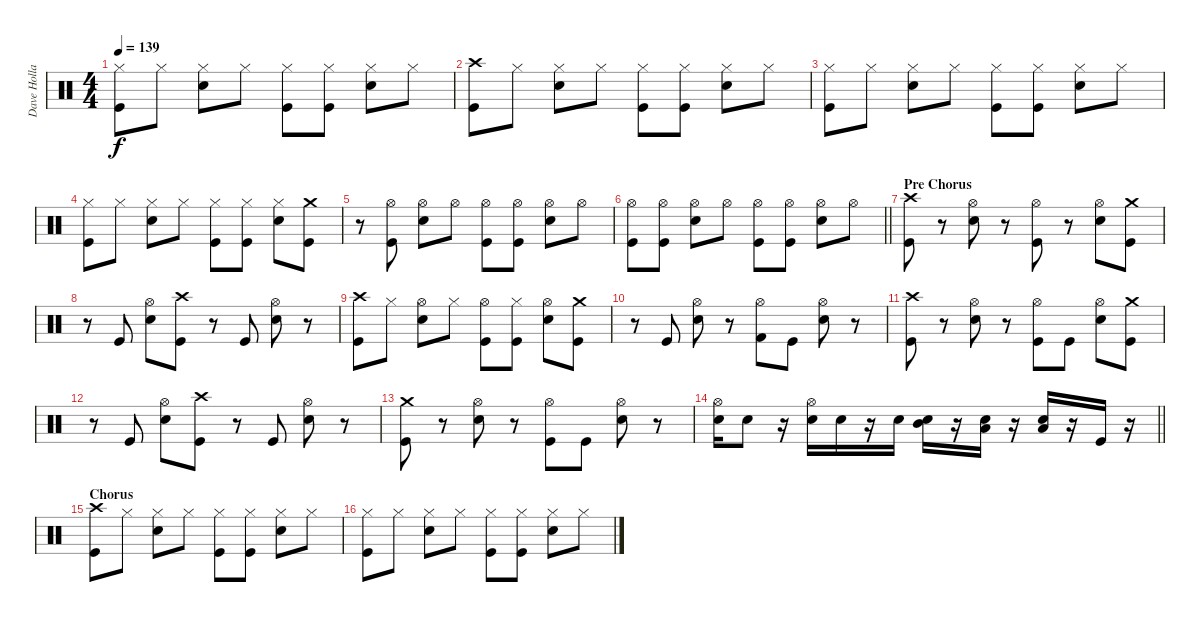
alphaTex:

\track ("Dave Holland" "Dave Holla") {instrument percussion}
\staff {score}
\articulation defaults
\ts (4 4)
\tempo 139
\clef neutral
\ks c
("Hi-Hat (closed)" "Kick (hit)").8{dy f} "Hi-Hat (closed)".8 ("Hi-Hat (closed)" "Electric Snare (hit)").8 "Hi-Hat (closed)".8 ("Hi-Hat (closed)" "Kick (hit)").8 ("Hi-Hat (closed)" "Kick (hit)").8 ("Hi-Hat (closed)" "Electric Snare (hit)").8 "Hi-Hat (closed)".8 |
("Crash high (hit)" "Kick (hit)").8 "Hi-Hat (closed)".8 ("Hi-Hat (closed)" "Electric Snare (hit)").8 "Hi-Hat (closed)".8 ("Hi-Hat (closed)" "Kick (hit)").8 ("Hi-Hat (closed)" "Kick (hit)").8 ("Hi-Hat (closed)" "Electric Snare (hit)").8 "Hi-Hat (closed)".8 |
("Hi-Hat (closed)" "Kick (hit)").8 "Hi-Hat (closed)".8 ("Hi-Hat (closed)" "Electric Snare (hit)").8 "Hi-Hat (closed)".8 ("Hi-Hat (closed)" "Kick (hit)").8 ("Hi-Hat (closed)" "Kick (hit)").8 ("Hi-Hat (closed)" "Electric Snare (hit)").8 "Hi-Hat (closed)".8 |
("Hi-Hat (closed)" "Kick (hit)").8 "Hi-Hat (closed)".8 ("Hi-Hat (closed)" "Electric Snare (hit)").8 "Hi-Hat (closed)".8 ("Hi-Hat (closed)" "Kick (hit)").8 ("Hi-Hat (closed)" "Kick (hit)").8 ("Hi-Hat (closed)" "Electric Snare (hit)").8 ("Crash medium (hit)" "Kick (hit)").8 |
r.8 ("Hi-Hat (open)" "Kick (hit)").8 ("Hi-Hat (open)" "Electric Snare (hit)").8 "Hi-Hat (open)".8 ("Hi-Hat (open)" "Kick (hit)").8 ("Hi-Hat (open)" "Kick (hit)").8 ("Hi-Hat (open)" "Electric Snare (hit)").8 "Hi-Hat (open)".8 |
\barLineRight lightlight
("Hi-Hat (open)" "Kick (hit)").8 ("Hi-Hat (open)" "Kick (hit)").8 ("Hi-Hat (open)" "Electric Snare (hit)").8 "Hi-Hat (open)".8 ("Hi-Hat (open)" "Kick (hit)").8 ("Hi-Hat (open)" "Kick (hit)").8 ("Hi-Hat (open)" "Electric Snare (hit)").8 "Hi-Hat (open)".8 |
\section ("" "Pre Chorus")
("Crash high (hit)" "Kick (hit)").8 r.8 ("Hi-Hat (open)" "Electric Snare (hit)").8 r.8 ("Hi-Hat (open)" "Kick (hit)").8 r.8 ("Hi-Hat (open)" "Electric Snare (hit)").8 ("Crash medium (hit)" "Kick (hit)").8 |
r.8 "Kick (hit)".8 ("Hi-Hat (open)" "Electric Snare (hit)").8 ("Crash high (hit)" "Kick (hit)").8 r.8 "Kick (hit)".8 ("Hi-Hat (open)" "Electric Snare (hit)").8 r.8 |
("Crash high (hit)" "Kick (hit)").8 "Hi-Hat (closed)".8 ("Hi-Hat (open)" "Electric Snare (hit)").8 "Hi-Hat (closed)".8 ("Hi-Hat (open)" "Kick (hit)").8 ("Hi-Hat (closed)" "Kick (hit)").8 ("Hi-Hat (open)" "Electric Snare (hit)").8 ("Crash medium (hit)" "Kick (hit)").8 |
r.8 "Kick (hit)".8 ("Hi-Hat (open)" "Electric Snare (hit)").8 r.8 ("Hi-Hat (open)" "Kick (hit) 2").8 "Kick (hit)".8 ("Hi-Hat (open)" "Electric Snare (hit)").8 r.8 |
("Crash high (hit)" "Kick (hit)").8 r.8 ("Hi-Hat (open)" "Electric Snare (hit)").8 r.8 ("Hi-Hat (open)" "Kick (hit)").8 "Kick (hit)".8 ("Hi-Hat (open)" "Electric Snare (hit)").8 ("Crash medium (hit)" "Kick (hit)").8 |
r.8 "Kick (hit)".8 ("Hi-Hat (open)" "Electric Snare (hit)").8 ("Crash high (hit)" "Kick (hit)").8 r.8 "Kick (hit)".8 ("Hi-Hat (open)" "Electric Snare (hit)").8 r.8 |
("Crash medium (hit)" "Kick (hit)").8 r.8 ("Hi-Hat (open)" "Electric Snare (hit)").8 r.8 ("Hi-Hat (open)" "Kick (hit)").8 "Kick (hit)".8 ("Hi-Hat (open)" "Electric Snare (hit)").8 r.8 |
\barLineRight lightlight
("Hi-Hat (open)" "Electric Snare (hit)").16 "Electric Snare (hit)".8 r.16 ("Hi-Hat (open)" "Electric Snare (hit)").16 "Electric Snare (hit)".16 r.16 "Electric Snare (hit)".16 ("Mid Tom (hit)" "Electric Snare (hit)").16 r.16 ("Low Tom (hit)" "Electric Snare (hit)").16 r.16 ("Low Tom (hit)" "Electric Snare (hit)").16 r.16 "Kick (hit)".16 r.16 |
\section ("" "Chorus")
("Crash high (hit)" "Kick (hit)").8 "Hi-Hat (closed)".8 ("Hi-Hat (closed)" "Electric Snare (hit)").8 "Hi-Hat (closed)".8 ("Hi-Hat (closed)" "Kick (hit)").8 ("Hi-Hat (closed)" "Kick (hit)").8 ("Hi-Hat (closed)" "Electric Snare (hit)").8 "Hi-Hat (closed)".8 |
("Hi-Hat (closed)" "Kick (hit)").8 "Hi-Hat (closed)".8 ("Hi-Hat (closed)" "Electric Snare (hit)").8 "Hi-Hat (closed)".8 ("Hi-Hat (closed)" "Kick (hit)").8 ("Hi-Hat (closed)" "Kick (hit)").8 ("Hi-Hat (closed)" "Electric Snare (hit)").8 "Hi-Hat (closed)".8
